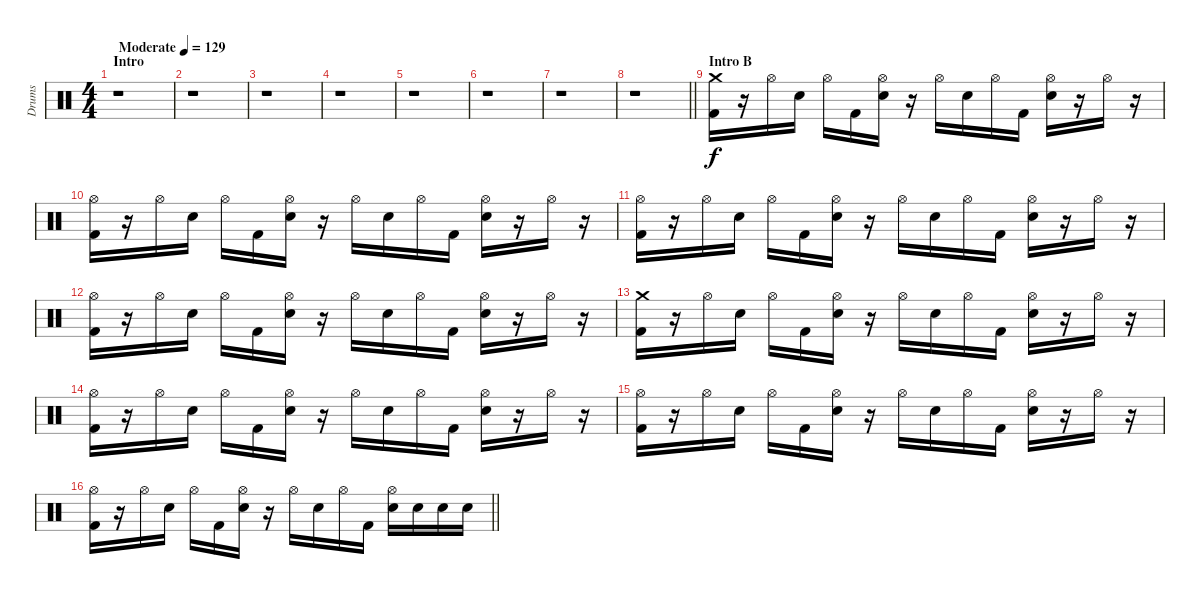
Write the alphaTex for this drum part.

\track ("Drums" "Drums") {instrument percussion}
\staff {score}
\articulation defaults
\ts (4 4)
\section ("" "Intro")
\tempo (129 "Moderate")
\clef neutral
\ks c
r.1{dy f} |
r.1 |
r.1 |
r.1 |
r.1 |
r.1 |
r.1 |
\barLineRight lightlight
r.1 |
\section ("" "Intro B")
("Crash medium (hit)" "Kick (hit) 2").16 r.16 "Hi-Hat (open)".16 "Electric Snare (hit)".16 "Hi-Hat (open)".16 "Kick (hit) 2".16 ("Hi-Hat (open)" "Electric Snare (hit)").16 r.16 "Hi-Hat (open)".16 "Electric Snare (hit)".16 "Hi-Hat (open)".16 "Kick (hit) 2".16 ("Hi-Hat (open)" "Electric Snare (hit)").16 r.16 "Hi-Hat (open)".16 r.16 |
("Hi-Hat (open)" "Kick (hit) 2").16 r.16 "Hi-Hat (open)".16 "Electric Snare (hit)".16 "Hi-Hat (open)".16 "Kick (hit) 2".16 ("Hi-Hat (open)" "Electric Snare (hit)").16 r.16 "Hi-Hat (open)".16 "Electric Snare (hit)".16 "Hi-Hat (open)".16 "Kick (hit) 2".16 ("Hi-Hat (open)" "Electric Snare (hit)").16 r.16 "Hi-Hat (open)".16 r.16 |
("Hi-Hat (open)" "Kick (hit) 2").16 r.16 "Hi-Hat (open)".16 "Electric Snare (hit)".16 "Hi-Hat (open)".16 "Kick (hit) 2".16 ("Hi-Hat (open)" "Electric Snare (hit)").16 r.16 "Hi-Hat (open)".16 "Electric Snare (hit)".16 "Hi-Hat (open)".16 "Kick (hit) 2".16 ("Hi-Hat (open)" "Electric Snare (hit)").16 r.16 "Hi-Hat (open)".16 r.16 |
("Hi-Hat (open)" "Kick (hit) 2").16 r.16 "Hi-Hat (open)".16 "Electric Snare (hit)".16 "Hi-Hat (open)".16 "Kick (hit) 2".16 ("Hi-Hat (open)" "Electric Snare (hit)").16 r.16 "Hi-Hat (open)".16 "Electric Snare (hit)".16 "Hi-Hat (open)".16 "Kick (hit) 2".16 ("Hi-Hat (open)" "Electric Snare (hit)").16 r.16 "Hi-Hat (open)".16 r.16 |
("Crash medium (hit)" "Kick (hit) 2").16 r.16 "Hi-Hat (open)".16 "Electric Snare (hit)".16 "Hi-Hat (open)".16 "Kick (hit) 2".16 ("Hi-Hat (open)" "Electric Snare (hit)").16 r.16 "Hi-Hat (open)".16 "Electric Snare (hit)".16 "Hi-Hat (open)".16 "Kick (hit) 2".16 ("Hi-Hat (open)" "Electric Snare (hit)").16 r.16 "Hi-Hat (open)".16 r.16 |
("Hi-Hat (open)" "Kick (hit) 2").16 r.16 "Hi-Hat (open)".16 "Electric Snare (hit)".16 "Hi-Hat (open)".16 "Kick (hit) 2".16 ("Hi-Hat (open)" "Electric Snare (hit)").16 r.16 "Hi-Hat (open)".16 "Electric Snare (hit)".16 "Hi-Hat (open)".16 "Kick (hit) 2".16 ("Hi-Hat (open)" "Electric Snare (hit)").16 r.16 "Hi-Hat (open)".16 r.16 |
("Hi-Hat (open)" "Kick (hit) 2").16 r.16 "Hi-Hat (open)".16 "Electric Snare (hit)".16 "Hi-Hat (open)".16 "Kick (hit) 2".16 ("Hi-Hat (open)" "Electric Snare (hit)").16 r.16 "Hi-Hat (open)".16 "Electric Snare (hit)".16 "Hi-Hat (open)".16 "Kick (hit) 2".16 ("Hi-Hat (open)" "Electric Snare (hit)").16 r.16 "Hi-Hat (open)".16 r.16 |
\barLineRight lightlight
("Hi-Hat (open)" "Kick (hit) 2").16 r.16 "Hi-Hat (open)".16 "Electric Snare (hit)".16 "Hi-Hat (open)".16 "Kick (hit) 2".16 ("Hi-Hat (open)" "Electric Snare (hit)").16 r.16 "Hi-Hat (open)".16 "Electric Snare (hit)".16 "Hi-Hat (open)".16 "Kick (hit) 2".16 ("Hi-Hat (open)" "Electric Snare (hit)").16 "Electric Snare (hit)".16 "Electric Snare (hit)".16 "Electric Snare (hit)".16
